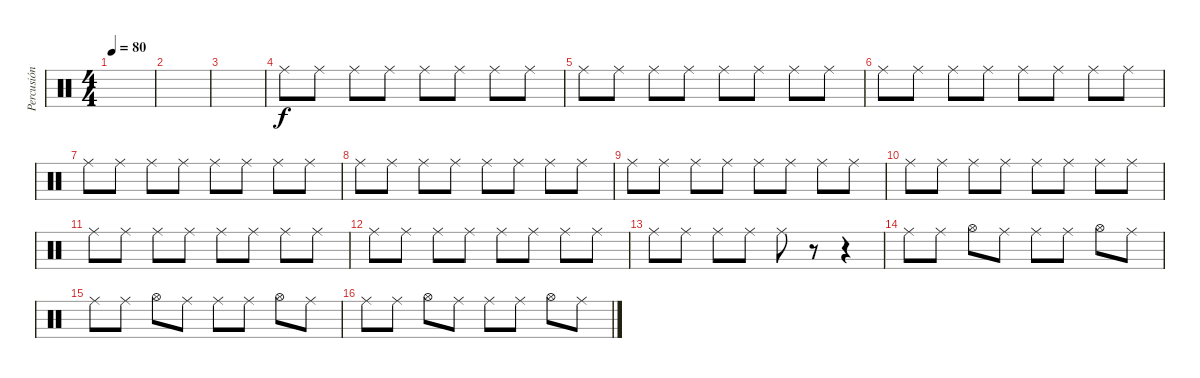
\track ("Percusión" "Percusión") {instrument percussion}
\staff {score}
\articulation defaults
\ts (4 4)
\tempo 80
\clef neutral
\ks c
|
|
|
"Ride (middle)".8 "Ride (middle)".8 "Ride (middle)".8 "Ride (middle)".8 "Ride (middle)".8 "Ride (middle)".8 "Ride (middle)".8 "Ride (middle)".8 |
"Ride (middle)".8 "Ride (middle)".8 "Ride (middle)".8 "Ride (middle)".8 "Ride (middle)".8 "Ride (middle)".8 "Ride (middle)".8 "Ride (middle)".8 |
"Ride (middle)".8 "Ride (middle)".8 "Ride (middle)".8 "Ride (middle)".8 "Ride (middle)".8 "Ride (middle)".8 "Ride (middle)".8 "Ride (middle)".8 |
"Ride (middle)".8 "Ride (middle)".8 "Ride (middle)".8 "Ride (middle)".8 "Ride (middle)".8 "Ride (middle)".8 "Ride (middle)".8 "Ride (middle)".8 |
"Ride (middle)".8 "Ride (middle)".8 "Ride (middle)".8 "Ride (middle)".8 "Ride (middle)".8 "Ride (middle)".8 "Ride (middle)".8 "Ride (middle)".8 |
"Ride (middle)".8 "Ride (middle)".8 "Ride (middle)".8 "Ride (middle)".8 "Ride (middle)".8 "Ride (middle)".8 "Ride (middle)".8 "Ride (middle)".8 |
"Ride (middle)".8 "Ride (middle)".8 "Ride (middle)".8 "Ride (middle)".8 "Ride (middle)".8 "Ride (middle)".8 "Ride (middle)".8 "Ride (middle)".8 |
"Ride (middle)".8 "Ride (middle)".8 "Ride (middle)".8 "Ride (middle)".8 "Ride (middle)".8 "Ride (middle)".8 "Ride (middle)".8 "Ride (middle)".8 |
"Ride (middle)".8 "Ride (middle)".8 "Ride (middle)".8 "Ride (middle)".8 "Ride (middle)".8 "Ride (middle)".8 "Ride (middle)".8 "Ride (middle)".8 |
"Ride (middle)".8 "Ride (middle)".8 "Ride (middle)".8 "Ride (middle)".8 "Ride (middle)".8 r.8 r.4 |
"Ride (middle)".8 "Ride (middle)".8 "Hi-Hat (open)".8 "Ride (middle)".8 "Ride (middle)".8 "Ride (middle)".8 "Hi-Hat (open)".8 "Ride (middle)".8 |
"Ride (middle)".8 "Ride (middle)".8 "Hi-Hat (open)".8 "Ride (middle)".8 "Ride (middle)".8 "Ride (middle)".8 "Hi-Hat (open)".8 "Ride (middle)".8 |
"Ride (middle)".8 "Ride (middle)".8 "Hi-Hat (open)".8 "Ride (middle)".8 "Ride (middle)".8 "Ride (middle)".8 "Hi-Hat (open)".8 "Ride (middle)".8
